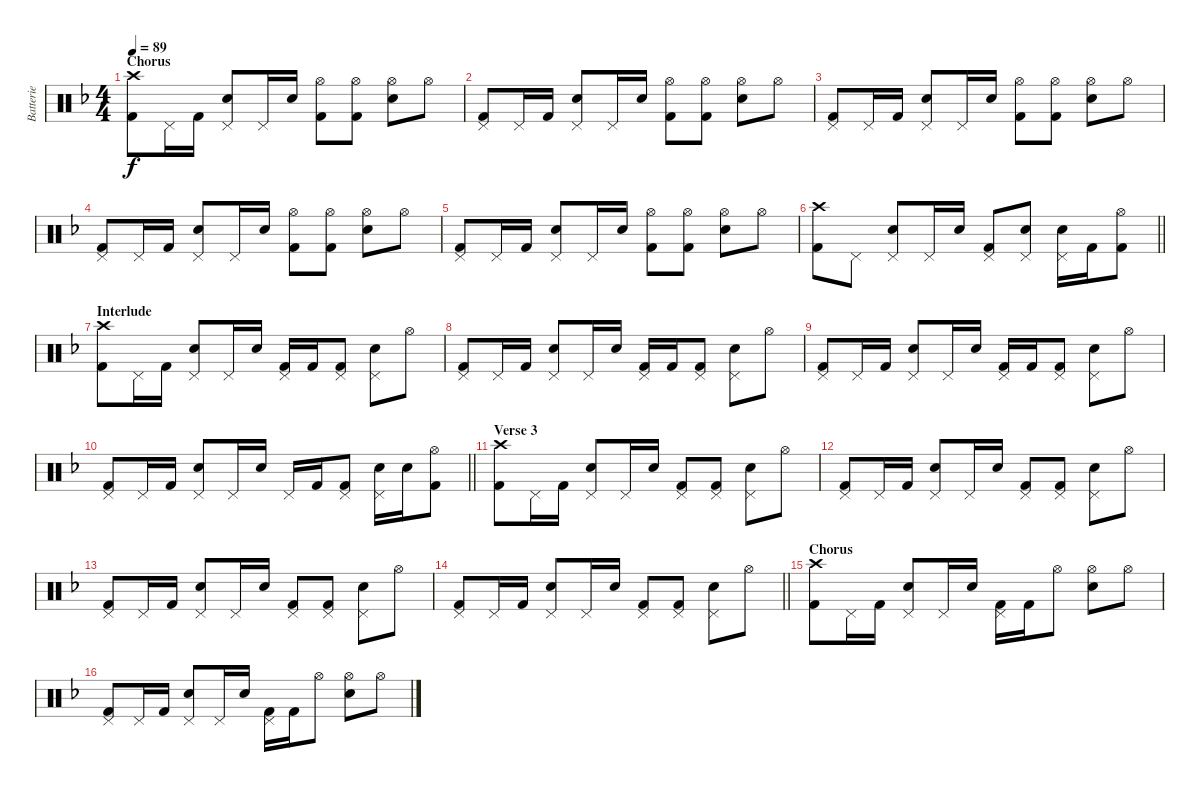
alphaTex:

\track ("Batterie" "Batterie") {instrument percussion}
\staff {score}
\articulation defaults
\ts (4 4)
\section ("" "Chorus")
\tempo 89
\clef neutral
\ks f
("Crash high (hit)" "Kick (hit) 2").8{dy f} "Pedal Hi-Hat (hit)".16 "Kick (hit) 2".16 ("Pedal Hi-Hat (hit)" "Electric Snare (hit)").8 "Pedal Hi-Hat (hit)".16 "Electric Snare (hit)".16 ("Hi-Hat (open)" "Kick (hit) 2").8 ("Hi-Hat (open)" "Kick (hit) 2").8 ("Hi-Hat (open)" "Electric Snare (hit)").8 "Hi-Hat (open)".8 |
("Pedal Hi-Hat (hit)" "Kick (hit) 2").8 "Pedal Hi-Hat (hit)".16 "Kick (hit) 2".16 ("Pedal Hi-Hat (hit)" "Electric Snare (hit)").8 "Pedal Hi-Hat (hit)".16 "Electric Snare (hit)".16 ("Hi-Hat (open)" "Kick (hit) 2").8 ("Hi-Hat (open)" "Kick (hit) 2").8 ("Hi-Hat (open)" "Electric Snare (hit)").8 "Hi-Hat (open)".8 |
("Pedal Hi-Hat (hit)" "Kick (hit) 2").8 "Pedal Hi-Hat (hit)".16 "Kick (hit) 2".16 ("Pedal Hi-Hat (hit)" "Electric Snare (hit)").8 "Pedal Hi-Hat (hit)".16 "Electric Snare (hit)".16 ("Hi-Hat (open)" "Kick (hit) 2").8 ("Hi-Hat (open)" "Kick (hit) 2").8 ("Hi-Hat (open)" "Electric Snare (hit)").8 "Hi-Hat (open)".8 |
("Pedal Hi-Hat (hit)" "Kick (hit) 2").8 "Pedal Hi-Hat (hit)".16 "Kick (hit) 2".16 ("Pedal Hi-Hat (hit)" "Electric Snare (hit)").8 "Pedal Hi-Hat (hit)".16 "Electric Snare (hit)".16 ("Hi-Hat (open)" "Kick (hit) 2").8 ("Hi-Hat (open)" "Kick (hit) 2").8 ("Hi-Hat (open)" "Electric Snare (hit)").8 "Hi-Hat (open)".8 |
("Pedal Hi-Hat (hit)" "Kick (hit) 2").8 "Pedal Hi-Hat (hit)".16 "Kick (hit) 2".16 ("Pedal Hi-Hat (hit)" "Electric Snare (hit)").8 "Pedal Hi-Hat (hit)".16 "Electric Snare (hit)".16 ("Hi-Hat (open)" "Kick (hit) 2").8 ("Hi-Hat (open)" "Kick (hit) 2").8 ("Hi-Hat (open)" "Electric Snare (hit)").8 "Hi-Hat (open)".8 |
\barLineRight lightlight
("Crash high (hit)" "Kick (hit) 2").8 "Pedal Hi-Hat (hit)".8 ("Pedal Hi-Hat (hit)" "Electric Snare (hit)").8 "Pedal Hi-Hat (hit)".16 "Electric Snare (hit)".16 ("Pedal Hi-Hat (hit)" "Kick (hit) 2").8 ("Pedal Hi-Hat (hit)" "Electric Snare (hit)").8 ("Pedal Hi-Hat (hit)" "Electric Snare (hit)").16 "Kick (hit) 2".16 ("Hi-Hat (open)" "Kick (hit) 2").8 |
\section ("" "Interlude")
("Crash high (hit)" "Kick (hit) 2").8 "Pedal Hi-Hat (hit)".16 "Kick (hit) 2".16 ("Pedal Hi-Hat (hit)" "Electric Snare (hit)").8 "Pedal Hi-Hat (hit)".16 "Electric Snare (hit)".16 ("Pedal Hi-Hat (hit)" "Kick (hit) 2").16 "Kick (hit) 2".16 ("Pedal Hi-Hat (hit)" "Kick (hit) 2").8 ("Pedal Hi-Hat (hit)" "Electric Snare (hit)").8 "Hi-Hat (open)".8 |
("Pedal Hi-Hat (hit)" "Kick (hit) 2").8 "Pedal Hi-Hat (hit)".16 "Kick (hit) 2".16 ("Pedal Hi-Hat (hit)" "Electric Snare (hit)").8 "Pedal Hi-Hat (hit)".16 "Electric Snare (hit)".16 ("Pedal Hi-Hat (hit)" "Kick (hit) 2").16 "Kick (hit) 2".16 ("Pedal Hi-Hat (hit)" "Kick (hit) 2").8 ("Pedal Hi-Hat (hit)" "Electric Snare (hit)").8 "Hi-Hat (open)".8 |
("Pedal Hi-Hat (hit)" "Kick (hit) 2").8 "Pedal Hi-Hat (hit)".16 "Kick (hit) 2".16 ("Pedal Hi-Hat (hit)" "Electric Snare (hit)").8 "Pedal Hi-Hat (hit)".16 "Electric Snare (hit)".16 ("Pedal Hi-Hat (hit)" "Kick (hit) 2").16 "Kick (hit) 2".16 ("Pedal Hi-Hat (hit)" "Kick (hit) 2").8 ("Pedal Hi-Hat (hit)" "Electric Snare (hit)").8 "Hi-Hat (open)".8 |
\barLineRight lightlight
("Pedal Hi-Hat (hit)" "Kick (hit) 2").8 "Pedal Hi-Hat (hit)".16 "Kick (hit) 2".16 ("Pedal Hi-Hat (hit)" "Electric Snare (hit)").8 "Pedal Hi-Hat (hit)".16 "Electric Snare (hit)".16 "Pedal Hi-Hat (hit)".16 "Kick (hit) 2".16 ("Pedal Hi-Hat (hit)" "Kick (hit) 2").8 ("Pedal Hi-Hat (hit)" "Electric Snare (hit)").16 "Electric Snare (hit)".16 ("Hi-Hat (open)" "Kick (hit) 2").8 |
\section ("" "Verse 3")
("Crash high (hit)" "Kick (hit) 2").8 "Pedal Hi-Hat (hit)".16 "Kick (hit) 2".16 ("Pedal Hi-Hat (hit)" "Electric Snare (hit)").8 "Pedal Hi-Hat (hit)".16 "Electric Snare (hit)".16 ("Pedal Hi-Hat (hit)" "Kick (hit) 2").8 ("Pedal Hi-Hat (hit)" "Kick (hit) 2").8 ("Pedal Hi-Hat (hit)" "Electric Snare (hit)").8 "Hi-Hat (open)".8 |
("Pedal Hi-Hat (hit)" "Kick (hit) 2").8 "Pedal Hi-Hat (hit)".16 "Kick (hit) 2".16 ("Pedal Hi-Hat (hit)" "Electric Snare (hit)").8 "Pedal Hi-Hat (hit)".16 "Electric Snare (hit)".16 ("Pedal Hi-Hat (hit)" "Kick (hit) 2").8 ("Pedal Hi-Hat (hit)" "Kick (hit) 2").8 ("Pedal Hi-Hat (hit)" "Electric Snare (hit)").8 "Hi-Hat (open)".8 |
("Pedal Hi-Hat (hit)" "Kick (hit) 2").8 "Pedal Hi-Hat (hit)".16 "Kick (hit) 2".16 ("Pedal Hi-Hat (hit)" "Electric Snare (hit)").8 "Pedal Hi-Hat (hit)".16 "Electric Snare (hit)".16 ("Pedal Hi-Hat (hit)" "Kick (hit) 2").8 ("Pedal Hi-Hat (hit)" "Kick (hit) 2").8 ("Pedal Hi-Hat (hit)" "Electric Snare (hit)").8 "Hi-Hat (open)".8 |
\barLineRight lightlight
("Pedal Hi-Hat (hit)" "Kick (hit) 2").8 "Pedal Hi-Hat (hit)".16 "Kick (hit) 2".16 ("Pedal Hi-Hat (hit)" "Electric Snare (hit)").8 "Pedal Hi-Hat (hit)".16 "Electric Snare (hit)".16 ("Pedal Hi-Hat (hit)" "Kick (hit) 2").8 ("Pedal Hi-Hat (hit)" "Kick (hit) 2").8 ("Pedal Hi-Hat (hit)" "Electric Snare (hit)").8 "Hi-Hat (open)".8 |
\section ("" "Chorus")
("Crash high (hit)" "Kick (hit) 2").8 "Pedal Hi-Hat (hit)".16 "Kick (hit) 2".16 ("Pedal Hi-Hat (hit)" "Electric Snare (hit)").8 "Pedal Hi-Hat (hit)".16 "Electric Snare (hit)".16 ("Pedal Hi-Hat (hit)" "Kick (hit) 2").16 "Kick (hit) 2".16 "Hi-Hat (open)".8 ("Hi-Hat (open)" "Electric Snare (hit)").8 "Hi-Hat (open)".8 |
("Pedal Hi-Hat (hit)" "Kick (hit) 2").8 "Pedal Hi-Hat (hit)".16 "Kick (hit) 2".16 ("Pedal Hi-Hat (hit)" "Electric Snare (hit)").8 "Pedal Hi-Hat (hit)".16 "Electric Snare (hit)".16 ("Pedal Hi-Hat (hit)" "Kick (hit) 2").16 "Kick (hit) 2".16 "Hi-Hat (open)".8 ("Hi-Hat (open)" "Electric Snare (hit)").8 "Hi-Hat (open)".8
